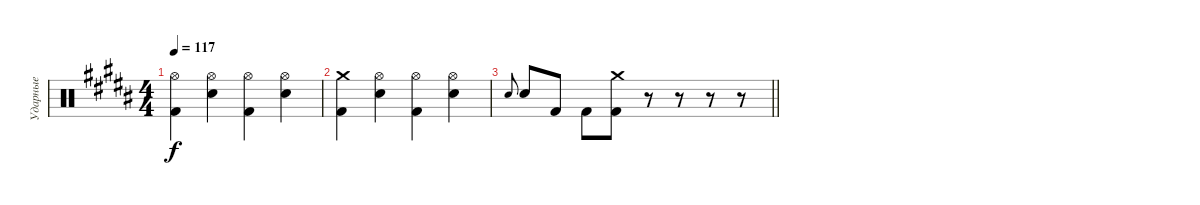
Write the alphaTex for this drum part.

\track ("Ударные" "Ударные") {instrument percussion}
\staff {score}
\articulation defaults
\ts (4 4)
\tempo 117
\clef neutral
\ks g#minor
("Hi-Hat (open)" "Kick (hit) 2").4{dy f} ("Hi-Hat (open)" "Electric Snare (hit)").4 ("Hi-Hat (open)" "Kick (hit) 2").4 ("Hi-Hat (open)" "Electric Snare (hit)").4 |
("Crash medium (hit)" "Kick (hit) 2").4 ("Hi-Hat (open)" "Electric Snare (hit)").4 ("Hi-Hat (open)" "Kick (hit) 2").4 ("Hi-Hat (open)" "Electric Snare (hit)").4 |
\barLineRight lightlight "Electric Snare (hit)".8{gr onbeat} "Electric Snare (hit)".8 "Kick (hit) 2".8 "Kick (hit) 2".8
("Crash medium (hit)" "Kick (hit) 2").8 r.8 r.8 r.8 r.8
